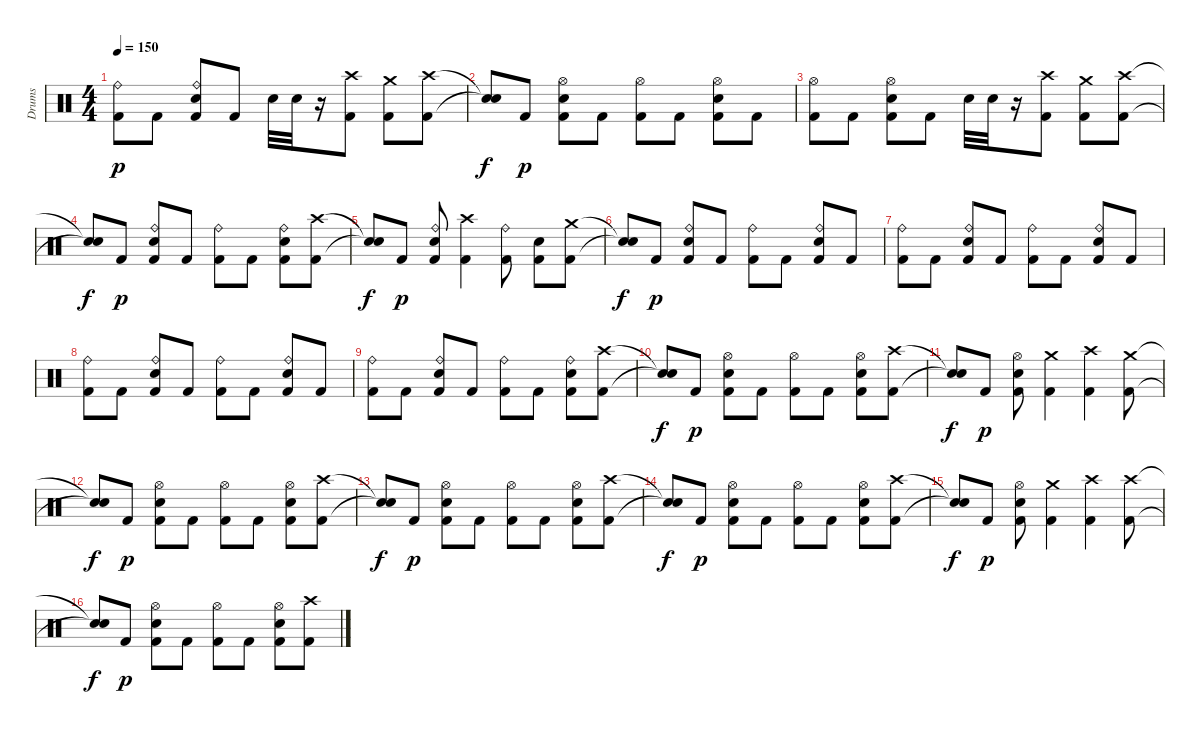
\track ("Drums" "Drums") {instrument percussion}
\staff {score}
\articulation defaults
\ts (4 4)
\tempo 150
\clef neutral
\ks c
("Kick (hit) 2" "Ride (bell)").8{dy p} "Kick (hit) 2".8 ("Kick (hit) 2" "Snare (hit) 2" "Ride (bell)").8 "Kick (hit) 2".8 "Snare (hit) 2".32 "Snare (hit) 2".32 r.16 ("Kick (hit) 2" "Crash high (hit)").8 ("Kick (hit) 2" "Crash medium (hit)").8 ("Kick (hit) 2" "Crash high (hit)").8 |
("Snare (hit)"{t} "Snare (hit)"{t}).8{dy f} "Kick (hit) 2".8{dy p} ("Kick (hit) 2" "Snare (hit) 2" "Hi-Hat (open)").8 "Kick (hit) 2".8 ("Kick (hit) 2" "Hi-Hat (open)").8 "Kick (hit) 2".8 ("Kick (hit) 2" "Snare (hit) 2" "Hi-Hat (open)").8 "Kick (hit) 2".8 |
("Kick (hit) 2" "Hi-Hat (open)").8 "Kick (hit) 2".8 ("Kick (hit) 2" "Snare (hit) 2" "Hi-Hat (open)").8 "Kick (hit) 2".8 "Snare (hit) 2".32 "Snare (hit) 2".32 r.16 ("Kick (hit) 2" "Crash high (hit)").8 ("Kick (hit) 2" "Crash medium (hit)").8 ("Kick (hit) 2" "Crash high (hit)").8 |
("Snare (hit)"{t} "Snare (hit)"{t}).8{dy f} "Kick (hit) 2".8{dy p} ("Kick (hit) 2" "Snare (hit) 2" "Ride (bell)").8 "Kick (hit) 2".8 ("Kick (hit) 2" "Ride (bell)").8 "Kick (hit) 2".8 ("Kick (hit) 2" "Snare (hit) 2" "Ride (bell)").8 ("Kick (hit) 2" "Crash high (hit)").8 |
("Snare (hit)"{t} "Snare (hit)"{t}).8{dy f} "Kick (hit) 2".8{dy p} ("Kick (hit) 2" "Snare (hit) 2" "Ride (bell)").8 ("Kick (hit) 2" "Crash high (hit)").4 ("Kick (hit) 2" "Ride (bell)").8 ("Kick (hit) 2" "Snare (hit) 2").8 ("Kick (hit) 2" "Crash medium (hit)").8 |
("Snare (hit)"{t} "Snare (hit)"{t}).8{dy f} "Kick (hit) 2".8{dy p} ("Kick (hit) 2" "Snare (hit) 2" "Ride (bell)").8 "Kick (hit) 2".8 ("Kick (hit) 2" "Ride (bell)").8 "Kick (hit) 2".8 ("Kick (hit) 2" "Snare (hit) 2" "Ride (bell)").8 "Kick (hit) 2".8 |
("Kick (hit) 2" "Ride (bell)").8 "Kick (hit) 2".8 ("Kick (hit) 2" "Snare (hit) 2" "Ride (bell)").8 "Kick (hit) 2".8 ("Kick (hit) 2" "Ride (bell)").8 "Kick (hit) 2".8 ("Kick (hit) 2" "Snare (hit) 2" "Ride (bell)").8 "Kick (hit) 2".8 |
("Kick (hit) 2" "Ride (bell)").8 "Kick (hit) 2".8 ("Kick (hit) 2" "Snare (hit) 2" "Ride (bell)").8 "Kick (hit) 2".8 ("Kick (hit) 2" "Ride (bell)").8 "Kick (hit) 2".8 ("Kick (hit) 2" "Snare (hit) 2" "Ride (bell)").8 "Kick (hit) 2".8 |
("Kick (hit) 2" "Ride (bell)").8 "Kick (hit) 2".8 ("Kick (hit) 2" "Snare (hit) 2" "Ride (bell)").8 "Kick (hit) 2".8 ("Kick (hit) 2" "Ride (bell)").8 "Kick (hit) 2".8 ("Kick (hit) 2" "Snare (hit) 2" "Ride (bell)").8 ("Kick (hit) 2" "Crash high (hit)").8 |
("Snare (hit)"{t} "Snare (hit)"{t}).8{dy f} "Kick (hit) 2".8{dy p} ("Kick (hit) 2" "Snare (hit) 2" "Hi-Hat (open)").8 "Kick (hit) 2".8 ("Kick (hit) 2" "Hi-Hat (open)").8 "Kick (hit) 2".8 ("Kick (hit) 2" "Snare (hit) 2" "Hi-Hat (open)").8 ("Kick (hit) 2" "Crash high (hit)").8 |
("Snare (hit)"{t} "Snare (hit)"{t}).8{dy f} "Kick (hit) 2".8{dy p} ("Kick (hit) 2" "Snare (hit) 2" "Hi-Hat (open)").8 ("Kick (hit) 2" "Crash medium (hit)").4 ("Kick (hit) 2" "Crash high (hit)").4 ("Kick (hit) 2" "Crash medium (hit)").8 |
("Snare (hit)"{t} "Snare (hit)"{t}).8{dy f} "Kick (hit) 2".8{dy p} ("Kick (hit) 2" "Snare (hit) 2" "Hi-Hat (open)").8 "Kick (hit) 2".8 ("Kick (hit) 2" "Hi-Hat (open)").8 "Kick (hit) 2".8 ("Kick (hit) 2" "Snare (hit) 2" "Hi-Hat (open)").8 ("Kick (hit) 2" "Crash high (hit)").8 |
("Snare (hit)"{t} "Snare (hit)"{t}).8{dy f} "Kick (hit) 2".8{dy p} ("Kick (hit) 2" "Snare (hit) 2" "Hi-Hat (open)").8 "Kick (hit) 2".8 ("Kick (hit) 2" "Hi-Hat (open)").8 "Kick (hit) 2".8 ("Kick (hit) 2" "Snare (hit) 2" "Hi-Hat (open)").8 ("Kick (hit) 2" "Crash high (hit)").8 |
("Snare (hit)"{t} "Snare (hit)"{t}).8{dy f} "Kick (hit) 2".8{dy p} ("Kick (hit) 2" "Snare (hit) 2" "Hi-Hat (open)").8 "Kick (hit) 2".8 ("Kick (hit) 2" "Hi-Hat (open)").8 "Kick (hit) 2".8 ("Kick (hit) 2" "Snare (hit) 2" "Hi-Hat (open)").8 ("Kick (hit) 2" "Crash high (hit)").8 |
("Snare (hit)"{t} "Snare (hit)"{t}).8{dy f} "Kick (hit) 2".8{dy p} ("Kick (hit) 2" "Snare (hit) 2" "Hi-Hat (open)").8 ("Kick (hit) 2" "Crash medium (hit)").4 ("Kick (hit) 2" "Crash high (hit)").4 ("Kick (hit) 2" "Crash high (hit)").8 |
("Snare (hit)"{t} "Snare (hit)"{t}).8{dy f} "Kick (hit) 2".8{dy p} ("Kick (hit) 2" "Snare (hit) 2" "Hi-Hat (open)").8 "Kick (hit) 2".8 ("Kick (hit) 2" "Hi-Hat (open)").8 "Kick (hit) 2".8 ("Kick (hit) 2" "Snare (hit) 2" "Hi-Hat (open)").8 ("Kick (hit) 2" "Crash high (hit)").8
